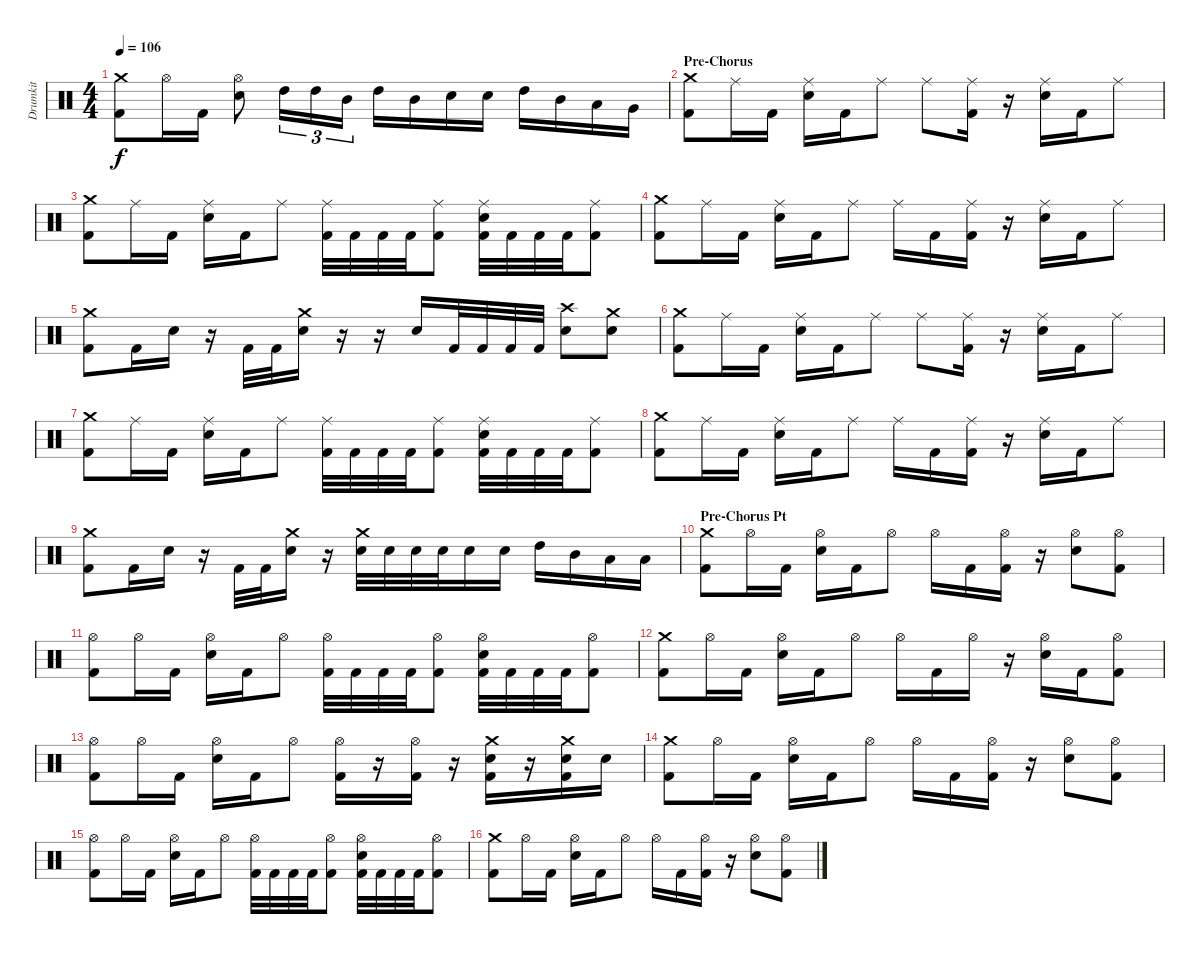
\track ("Drumkit" "Drumkit") {instrument percussion}
\staff {score}
\articulation defaults
\ts (4 4)
\tempo 106
\clef neutral
\ks c
("Crash medium (hit)" "Kick (hit) 2").8{dy f} "Hi-Hat (open)".16 "Kick (hit) 2".16 ("Hi-Hat (open)" "Snare (hit) 2").8 "High Tom (hit)".16{tu (3 2)} "High Tom (hit)".16{tu (3 2)} "Mid Tom (hit)".16{tu (3 2)} "High Tom (hit)".16 "Mid Tom (hit)".16 "Snare (hit) 2".16 "Snare (hit) 2".16 "High Tom (hit)".16 "Mid Tom (hit)".16 "Low Tom (hit)".16 "Very Low Tom (hit)".16 |
\section ("" "Pre-Chorus")
("Crash medium (hit)" "Kick (hit) 2").8 "Ride (middle)".16 "Kick (hit) 2".16 ("Ride (middle)" "Snare (hit) 2").16 "Kick (hit) 2".16 "Ride (middle)".8 "Ride (middle)".8 ("Ride (middle)" "Kick (hit) 2").16 r.16 ("Ride (middle)" "Snare (hit) 2").16 "Kick (hit) 2".16 "Ride (middle)".8 |
("Crash medium (hit)" "Kick (hit) 2").8 "Ride (middle)".16 "Kick (hit) 2".16 ("Ride (middle)" "Snare (hit) 2").16 "Kick (hit) 2".16 "Ride (middle)".8 ("Ride (middle)" "Kick (hit) 2").32 "Kick (hit) 2".32 "Kick (hit) 2".32 "Kick (hit) 2".32 ("Ride (middle)" "Kick (hit) 2").8 ("Ride (middle)" "Snare (hit) 2" "Kick (hit) 2").32 "Kick (hit) 2".32 "Kick (hit) 2".32 "Kick (hit) 2".32 ("Ride (middle)" "Kick (hit) 2").8 |
("Crash medium (hit)" "Kick (hit) 2").8 "Ride (middle)".16 "Kick (hit) 2".16 ("Ride (middle)" "Snare (hit) 2").16 "Kick (hit) 2".16 "Ride (middle)".8 "Ride (middle)".16 "Kick (hit) 2".16 ("Ride (middle)" "Kick (hit) 2").16 r.16 ("Ride (middle)" "Snare (hit) 2").16 "Kick (hit) 2".16 "Ride (middle)".8 |
("Crash medium (hit)" "Kick (hit) 2").8 "Kick (hit) 2".16 "Snare (hit) 2".16 r.16 "Kick (hit) 2".32 "Kick (hit) 2".32 ("Crash medium (hit)" "Snare (hit) 2").16 r.16 r.16 "Snare (hit) 2".16 "Kick (hit) 2".32 "Kick (hit) 2".32 "Kick (hit) 2".32 "Kick (hit) 2".32 ("Crash high (hit)" "Snare (hit) 2").8 ("Crash medium (hit)" "Snare (hit) 2").8 |
("Crash medium (hit)" "Kick (hit) 2").8 "Ride (middle)".16 "Kick (hit) 2".16 ("Ride (middle)" "Snare (hit) 2").16 "Kick (hit) 2".16 "Ride (middle)".8 "Ride (middle)".8 ("Ride (middle)" "Kick (hit) 2").16 r.16 ("Ride (middle)" "Snare (hit) 2").16 "Kick (hit) 2".16 "Ride (middle)".8 |
("Crash medium (hit)" "Kick (hit) 2").8 "Ride (middle)".16 "Kick (hit) 2".16 ("Ride (middle)" "Snare (hit) 2").16 "Kick (hit) 2".16 "Ride (middle)".8 ("Ride (middle)" "Kick (hit) 2").32 "Kick (hit) 2".32 "Kick (hit) 2".32 "Kick (hit) 2".32 ("Ride (middle)" "Kick (hit) 2").8 ("Ride (middle)" "Snare (hit) 2" "Kick (hit) 2").32 "Kick (hit) 2".32 "Kick (hit) 2".32 "Kick (hit) 2".32 ("Ride (middle)" "Kick (hit) 2").8 |
("Crash medium (hit)" "Kick (hit) 2").8 "Ride (middle)".16 "Kick (hit) 2".16 ("Ride (middle)" "Snare (hit) 2").16 "Kick (hit) 2".16 "Ride (middle)".8 "Ride (middle)".16 "Kick (hit) 2".16 ("Ride (middle)" "Kick (hit) 2").16 r.16 ("Ride (middle)" "Snare (hit) 2").16 "Kick (hit) 2".16 "Ride (middle)".8 |
("Crash medium (hit)" "Kick (hit) 2").8 "Kick (hit) 2".16 "Snare (hit) 2".16 r.16 "Kick (hit) 2".32 "Kick (hit) 2".32 ("Crash medium (hit)" "Snare (hit) 2").16 r.16 ("Crash medium (hit)" "Snare (hit) 2").32 "Snare (hit) 2".32 "Snare (hit) 2".32 "Snare (hit) 2".32 "Snare (hit) 2".16 "Snare (hit) 2".16 "High Tom (hit)".16 "Mid Tom (hit)".16 "Low Tom (hit)".16 "Low Tom (hit)".16 |
\section ("" "Pre-Chorus Pt")
("Crash medium (hit)" "Kick (hit) 2").8 "Hi-Hat (open)".16 "Kick (hit) 2".16 ("Hi-Hat (open)" "Snare (hit) 2").16 "Kick (hit) 2".16 "Hi-Hat (open)".8 "Hi-Hat (open)".16 "Kick (hit) 2".16 ("Hi-Hat (open)" "Kick (hit) 2").16 r.16 ("Hi-Hat (open)" "Snare (hit) 2").8 ("Hi-Hat (open)" "Kick (hit) 2").8 |
("Hi-Hat (open)" "Kick (hit) 2").8 "Hi-Hat (open)".16 "Kick (hit) 2".16 ("Hi-Hat (open)" "Snare (hit) 2").16 "Kick (hit) 2".16 "Hi-Hat (open)".8 ("Hi-Hat (open)" "Kick (hit) 2").32 "Kick (hit) 2".32 "Kick (hit) 2".32 "Kick (hit) 2".32 ("Hi-Hat (open)" "Kick (hit) 2").8 ("Hi-Hat (open)" "Snare (hit) 2" "Kick (hit) 2").32 "Kick (hit) 2".32 "Kick (hit) 2".32 "Kick (hit) 2".32 ("Hi-Hat (open)" "Kick (hit) 2").8 |
("Crash medium (hit)" "Kick (hit) 2").8 "Hi-Hat (open)".16 "Kick (hit) 2".16 ("Hi-Hat (open)" "Snare (hit) 2").16 "Kick (hit) 2".16 "Hi-Hat (open)".8 "Hi-Hat (open)".16 "Kick (hit) 2".16 "Hi-Hat (open)".16 r.16 ("Hi-Hat (open)" "Snare (hit) 2").16 "Kick (hit) 2".16 ("Hi-Hat (open)" "Kick (hit) 2").8 |
("Hi-Hat (open)" "Kick (hit) 2").8 "Hi-Hat (open)".16 "Kick (hit) 2".16 ("Hi-Hat (open)" "Snare (hit) 2").16 "Kick (hit) 2".16 "Hi-Hat (open)".8 ("Hi-Hat (open)" "Kick (hit) 2").16 r.16 ("Hi-Hat (open)" "Kick (hit) 2").16 r.16 ("Crash medium (hit)" "Snare (hit) 2" "Kick (hit) 2").16 r.16 ("Crash medium (hit)" "Snare (hit) 2" "Kick (hit) 2").16 "Snare (hit) 2".16 |
("Crash medium (hit)" "Kick (hit) 2").8 "Hi-Hat (open)".16 "Kick (hit) 2".16 ("Hi-Hat (open)" "Snare (hit) 2").16 "Kick (hit) 2".16 "Hi-Hat (open)".8 "Hi-Hat (open)".16 "Kick (hit) 2".16 ("Hi-Hat (open)" "Kick (hit) 2").16 r.16 ("Hi-Hat (open)" "Snare (hit) 2").8 ("Hi-Hat (open)" "Kick (hit) 2").8 |
("Hi-Hat (open)" "Kick (hit) 2").8 "Hi-Hat (open)".16 "Kick (hit) 2".16 ("Hi-Hat (open)" "Snare (hit) 2").16 "Kick (hit) 2".16 "Hi-Hat (open)".8 ("Hi-Hat (open)" "Kick (hit) 2").32 "Kick (hit) 2".32 "Kick (hit) 2".32 "Kick (hit) 2".32 ("Hi-Hat (open)" "Kick (hit) 2").8 ("Hi-Hat (open)" "Snare (hit) 2" "Kick (hit) 2").32 "Kick (hit) 2".32 "Kick (hit) 2".32 "Kick (hit) 2".32 ("Hi-Hat (open)" "Kick (hit) 2").8 |
("Crash medium (hit)" "Kick (hit) 2").8 "Hi-Hat (open)".16 "Kick (hit) 2".16 ("Hi-Hat (open)" "Snare (hit) 2").16 "Kick (hit) 2".16 "Hi-Hat (open)".8 "Hi-Hat (open)".16 "Kick (hit) 2".16 ("Hi-Hat (open)" "Kick (hit) 2").16 r.16 ("Hi-Hat (open)" "Snare (hit) 2").8 ("Hi-Hat (open)" "Kick (hit) 2").8
